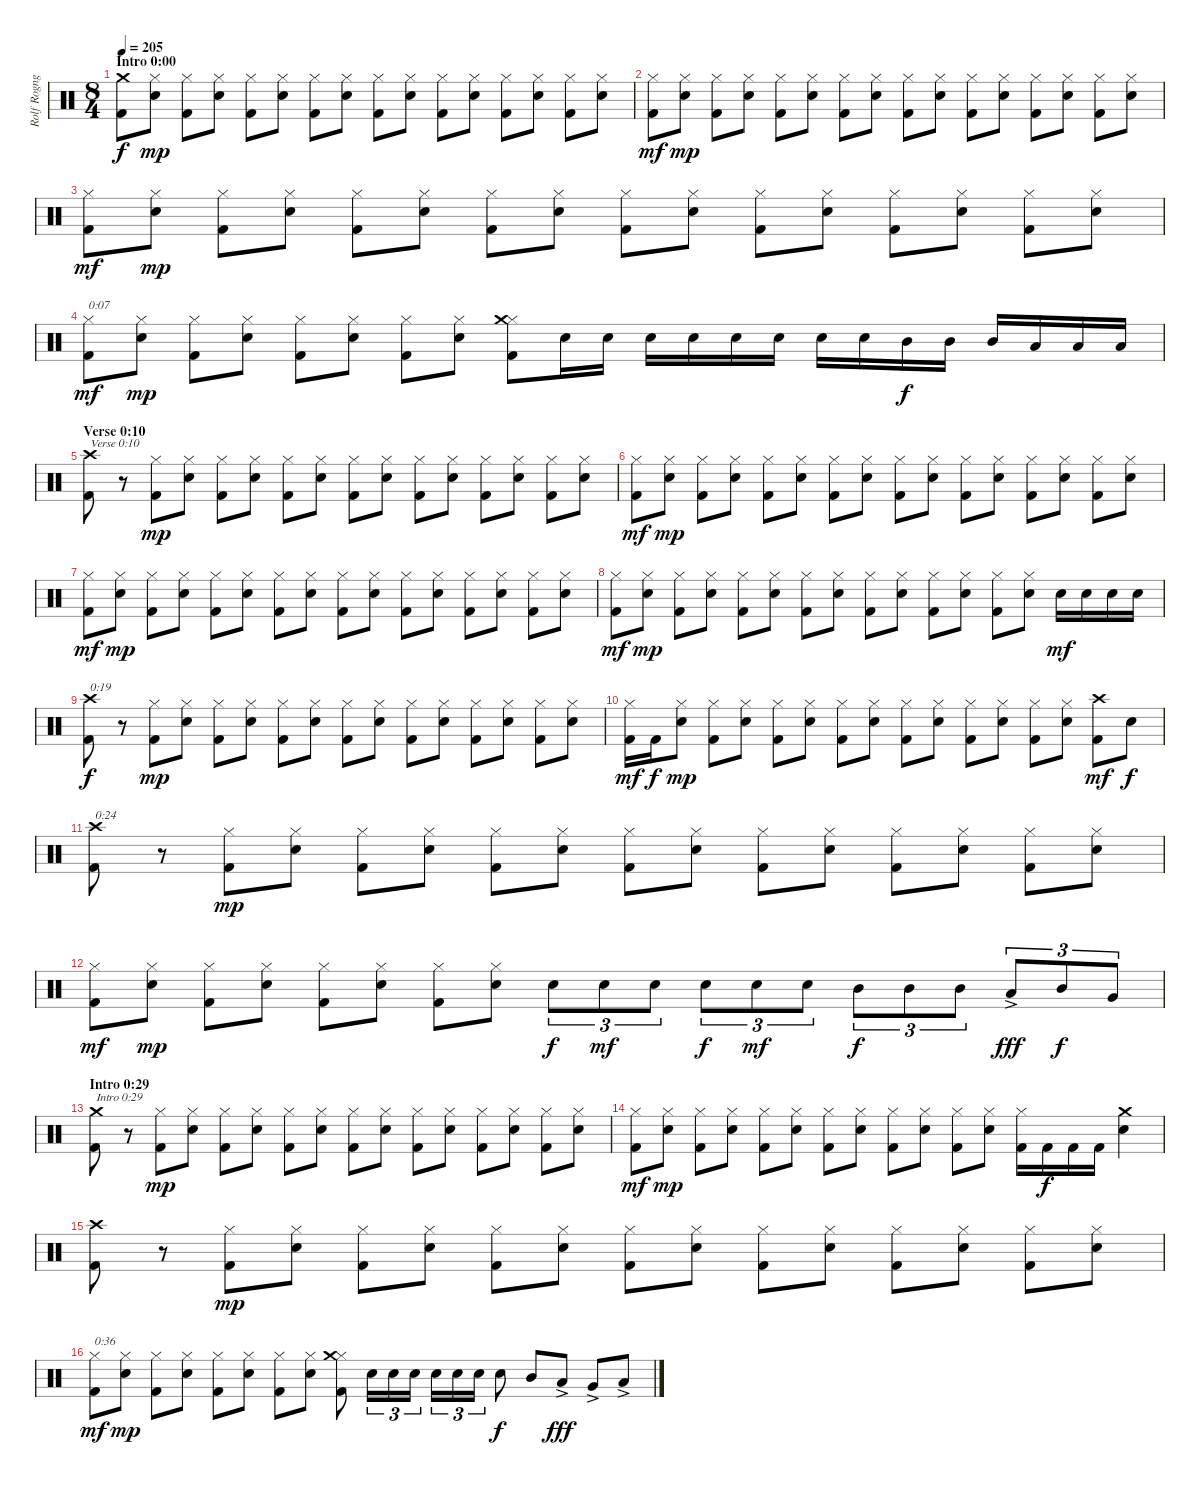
\track ("Rolf Rognguf Hansen" "Rolf Rogng") {instrument percussion}
\staff {score}
\articulation defaults
\ts (8 4)
\section ("" "Intro 0:00")
\tempo 205
\clef neutral
\ks c
("Kick (hit) 2" "Crash medium (hit)").8{dy f} ("Electric Snare (hit)" "Hi-Hat (closed)").8{dy mp} ("Kick (hit) 2" "Hi-Hat (closed)").8 ("Electric Snare (hit)" "Hi-Hat (closed)").8 ("Kick (hit) 2" "Hi-Hat (closed)").8 ("Electric Snare (hit)" "Hi-Hat (closed)").8 ("Kick (hit) 2" "Hi-Hat (closed)").8 ("Electric Snare (hit)" "Hi-Hat (closed)").8 ("Kick (hit) 2" "Hi-Hat (closed)").8 ("Electric Snare (hit)" "Hi-Hat (closed)").8 ("Kick (hit) 2" "Hi-Hat (closed)").8 ("Electric Snare (hit)" "Hi-Hat (closed)").8 ("Kick (hit) 2" "Hi-Hat (closed)").8 ("Electric Snare (hit)" "Hi-Hat (closed)").8 ("Kick (hit) 2" "Hi-Hat (closed)").8 ("Electric Snare (hit)" "Hi-Hat (closed)").8 |
("Kick (hit) 2" "Hi-Hat (closed)").8{dy mf} ("Electric Snare (hit)" "Hi-Hat (closed)").8{dy mp} ("Kick (hit) 2" "Hi-Hat (closed)").8 ("Electric Snare (hit)" "Hi-Hat (closed)").8 ("Kick (hit) 2" "Hi-Hat (closed)").8 ("Electric Snare (hit)" "Hi-Hat (closed)").8 ("Kick (hit) 2" "Hi-Hat (closed)").8 ("Electric Snare (hit)" "Hi-Hat (closed)").8 ("Kick (hit) 2" "Hi-Hat (closed)").8 ("Electric Snare (hit)" "Hi-Hat (closed)").8 ("Kick (hit) 2" "Hi-Hat (closed)").8 ("Electric Snare (hit)" "Hi-Hat (closed)").8 ("Kick (hit) 2" "Hi-Hat (closed)").8 ("Electric Snare (hit)" "Hi-Hat (closed)").8 ("Kick (hit) 2" "Hi-Hat (closed)").8 ("Electric Snare (hit)" "Hi-Hat (closed)").8 |
("Kick (hit) 2" "Hi-Hat (closed)").8{dy mf} ("Electric Snare (hit)" "Hi-Hat (closed)").8{dy mp} ("Kick (hit) 2" "Hi-Hat (closed)").8 ("Electric Snare (hit)" "Hi-Hat (closed)").8 ("Kick (hit) 2" "Hi-Hat (closed)").8 ("Electric Snare (hit)" "Hi-Hat (closed)").8 ("Kick (hit) 2" "Hi-Hat (closed)").8 ("Electric Snare (hit)" "Hi-Hat (closed)").8 ("Kick (hit) 2" "Hi-Hat (closed)").8 ("Electric Snare (hit)" "Hi-Hat (closed)").8 ("Kick (hit) 2" "Hi-Hat (closed)").8 ("Electric Snare (hit)" "Hi-Hat (closed)").8 ("Kick (hit) 2" "Hi-Hat (closed)").8 ("Electric Snare (hit)" "Hi-Hat (closed)").8 ("Kick (hit) 2" "Hi-Hat (closed)").8 ("Electric Snare (hit)" "Hi-Hat (closed)").8 |
("Kick (hit) 2" "Hi-Hat (closed)").8{txt "0:07" dy mf} ("Electric Snare (hit)" "Hi-Hat (closed)").8{dy mp} ("Kick (hit) 2" "Hi-Hat (closed)").8 ("Electric Snare (hit)" "Hi-Hat (closed)").8 ("Kick (hit) 2" "Hi-Hat (closed)").8 ("Electric Snare (hit)" "Hi-Hat (closed)").8 ("Kick (hit) 2" "Hi-Hat (closed)").8 ("Electric Snare (hit)" "Hi-Hat (closed)").8 ("Kick (hit) 2" "Hi-Hat (closed)" "Crash medium (hit)").8 "Electric Snare (hit)".16 "Electric Snare (hit)".16 "Electric Snare (hit)".16 "Electric Snare (hit)".16 "Electric Snare (hit)".16 "Electric Snare (hit)".16 "Electric Snare (hit)".16 "Electric Snare (hit)".16 "Mid Tom (hit)".16{dy f} "Mid Tom (hit)".16 "Mid Tom (hit)".16 "Low Tom (hit)".16 "Low Tom (hit)".16 "Low Tom (hit)".16 |
\section ("" "Verse 0:10")
("Kick (hit) 2" "Crash high (hit)").8{txt "Verse 0:10"} r.8 ("Kick (hit) 2" "Hi-Hat (closed)").8{dy mp} ("Electric Snare (hit)" "Hi-Hat (closed)").8 ("Kick (hit) 2" "Hi-Hat (closed)").8 ("Electric Snare (hit)" "Hi-Hat (closed)").8 ("Kick (hit) 2" "Hi-Hat (closed)").8 ("Electric Snare (hit)" "Hi-Hat (closed)").8 ("Kick (hit) 2" "Hi-Hat (closed)").8 ("Electric Snare (hit)" "Hi-Hat (closed)").8 ("Kick (hit) 2" "Hi-Hat (closed)").8 ("Electric Snare (hit)" "Hi-Hat (closed)").8 ("Kick (hit) 2" "Hi-Hat (closed)").8 ("Electric Snare (hit)" "Hi-Hat (closed)").8 ("Kick (hit) 2" "Hi-Hat (closed)").8 ("Electric Snare (hit)" "Hi-Hat (closed)").8 |
("Kick (hit) 2" "Hi-Hat (closed)").8{dy mf} ("Electric Snare (hit)" "Hi-Hat (closed)").8{dy mp} ("Kick (hit) 2" "Hi-Hat (closed)").8 ("Electric Snare (hit)" "Hi-Hat (closed)").8 ("Kick (hit) 2" "Hi-Hat (closed)").8 ("Electric Snare (hit)" "Hi-Hat (closed)").8 ("Kick (hit) 2" "Hi-Hat (closed)").8 ("Electric Snare (hit)" "Hi-Hat (closed)").8 ("Kick (hit) 2" "Hi-Hat (closed)").8 ("Electric Snare (hit)" "Hi-Hat (closed)").8 ("Kick (hit) 2" "Hi-Hat (closed)").8 ("Electric Snare (hit)" "Hi-Hat (closed)").8 ("Kick (hit) 2" "Hi-Hat (closed)").8 ("Electric Snare (hit)" "Hi-Hat (closed)").8 ("Kick (hit) 2" "Hi-Hat (closed)").8 ("Electric Snare (hit)" "Hi-Hat (closed)").8 |
("Kick (hit) 2" "Hi-Hat (closed)").8{dy mf} ("Electric Snare (hit)" "Hi-Hat (closed)").8{dy mp} ("Kick (hit) 2" "Hi-Hat (closed)").8 ("Electric Snare (hit)" "Hi-Hat (closed)").8 ("Kick (hit) 2" "Hi-Hat (closed)").8 ("Electric Snare (hit)" "Hi-Hat (closed)").8 ("Kick (hit) 2" "Hi-Hat (closed)").8 ("Electric Snare (hit)" "Hi-Hat (closed)").8 ("Kick (hit) 2" "Hi-Hat (closed)").8 ("Electric Snare (hit)" "Hi-Hat (closed)").8 ("Kick (hit) 2" "Hi-Hat (closed)").8 ("Electric Snare (hit)" "Hi-Hat (closed)").8 ("Kick (hit) 2" "Hi-Hat (closed)").8 ("Electric Snare (hit)" "Hi-Hat (closed)").8 ("Kick (hit) 2" "Hi-Hat (closed)").8 ("Electric Snare (hit)" "Hi-Hat (closed)").8 |
("Kick (hit) 2" "Hi-Hat (closed)").8{dy mf} ("Electric Snare (hit)" "Hi-Hat (closed)").8{dy mp} ("Kick (hit) 2" "Hi-Hat (closed)").8 ("Electric Snare (hit)" "Hi-Hat (closed)").8 ("Kick (hit) 2" "Hi-Hat (closed)").8 ("Electric Snare (hit)" "Hi-Hat (closed)").8 ("Kick (hit) 2" "Hi-Hat (closed)").8 ("Electric Snare (hit)" "Hi-Hat (closed)").8 ("Kick (hit) 2" "Hi-Hat (closed)").8 ("Electric Snare (hit)" "Hi-Hat (closed)").8 ("Kick (hit) 2" "Hi-Hat (closed)").8 ("Electric Snare (hit)" "Hi-Hat (closed)").8 ("Kick (hit) 2" "Hi-Hat (closed)").8 ("Electric Snare (hit)" "Hi-Hat (closed)").8 "Electric Snare (hit)".16{dy mf} "Electric Snare (hit)".16 "Electric Snare (hit)".16 "Electric Snare (hit)".16 |
("Kick (hit) 2" "Crash high (hit)").8{txt "0:19" dy f} r.8 ("Kick (hit) 2" "Hi-Hat (closed)").8{dy mp} ("Electric Snare (hit)" "Hi-Hat (closed)").8 ("Kick (hit) 2" "Hi-Hat (closed)").8 ("Electric Snare (hit)" "Hi-Hat (closed)").8 ("Kick (hit) 2" "Hi-Hat (closed)").8 ("Electric Snare (hit)" "Hi-Hat (closed)").8 ("Kick (hit) 2" "Hi-Hat (closed)").8 ("Electric Snare (hit)" "Hi-Hat (closed)").8 ("Kick (hit) 2" "Hi-Hat (closed)").8 ("Electric Snare (hit)" "Hi-Hat (closed)").8 ("Kick (hit) 2" "Hi-Hat (closed)").8 ("Electric Snare (hit)" "Hi-Hat (closed)").8 ("Kick (hit) 2" "Hi-Hat (closed)").8 ("Electric Snare (hit)" "Hi-Hat (closed)").8 |
("Kick (hit) 2" "Hi-Hat (closed)").16{dy mf} "Kick (hit) 2".16{dy f} ("Electric Snare (hit)" "Hi-Hat (closed)").8{dy mp} ("Kick (hit) 2" "Hi-Hat (closed)").8 ("Electric Snare (hit)" "Hi-Hat (closed)").8 ("Kick (hit) 2" "Hi-Hat (closed)").8 ("Electric Snare (hit)" "Hi-Hat (closed)").8 ("Kick (hit) 2" "Hi-Hat (closed)").8 ("Electric Snare (hit)" "Hi-Hat (closed)").8 ("Kick (hit) 2" "Hi-Hat (closed)").8 ("Electric Snare (hit)" "Hi-Hat (closed)").8 ("Kick (hit) 2" "Hi-Hat (closed)").8 ("Electric Snare (hit)" "Hi-Hat (closed)").8 ("Kick (hit) 2" "Hi-Hat (closed)").8 ("Electric Snare (hit)" "Hi-Hat (closed)").8 ("Kick (hit) 2" "Crash high (hit)").8{dy mf} "Electric Snare (hit)".8{dy f} |
("Kick (hit) 2" "Crash high (hit)").8{txt "0:24"} r.8 ("Kick (hit) 2" "Hi-Hat (closed)").8{dy mp} ("Electric Snare (hit)" "Hi-Hat (closed)").8 ("Kick (hit) 2" "Hi-Hat (closed)").8 ("Electric Snare (hit)" "Hi-Hat (closed)").8 ("Kick (hit) 2" "Hi-Hat (closed)").8 ("Electric Snare (hit)" "Hi-Hat (closed)").8 ("Kick (hit) 2" "Hi-Hat (closed)").8 ("Electric Snare (hit)" "Hi-Hat (closed)").8 ("Kick (hit) 2" "Hi-Hat (closed)").8 ("Electric Snare (hit)" "Hi-Hat (closed)").8 ("Kick (hit) 2" "Hi-Hat (closed)").8 ("Electric Snare (hit)" "Hi-Hat (closed)").8 ("Kick (hit) 2" "Hi-Hat (closed)").8 ("Electric Snare (hit)" "Hi-Hat (closed)").8 |
("Kick (hit) 2" "Hi-Hat (closed)").8{dy mf} ("Electric Snare (hit)" "Hi-Hat (closed)").8{dy mp} ("Kick (hit) 2" "Hi-Hat (closed)").8 ("Electric Snare (hit)" "Hi-Hat (closed)").8 ("Kick (hit) 2" "Hi-Hat (closed)").8 ("Electric Snare (hit)" "Hi-Hat (closed)").8 ("Kick (hit) 2" "Hi-Hat (closed)").8 ("Electric Snare (hit)" "Hi-Hat (closed)").8 "Electric Snare (hit)".8{tu (3 2) dy f} "Electric Snare (hit)".8{tu (3 2) dy mf} "Electric Snare (hit)".8{tu (3 2)} "Electric Snare (hit)".8{tu (3 2) dy f} "Electric Snare (hit)".8{tu (3 2) dy mf} "Electric Snare (hit)".8{tu (3 2)} "Mid Tom (hit)".8{tu (3 2) dy f} "Mid Tom (hit)".8{tu (3 2)} "Mid Tom (hit)".8{tu (3 2)} "Low Tom (hit)"{ac}.8{tu (3 2) dy fff} "Mid Tom (hit)".8{tu (3 2) dy f} "Very Low Tom (hit)".8{tu (3 2)} |
\section ("" "Intro 0:29")
("Kick (hit) 2" "Crash medium (hit)").8{txt "Intro 0:29"} r.8 ("Kick (hit) 2" "Hi-Hat (closed)").8{dy mp} ("Electric Snare (hit)" "Hi-Hat (closed)").8 ("Kick (hit) 2" "Hi-Hat (closed)").8 ("Electric Snare (hit)" "Hi-Hat (closed)").8 ("Kick (hit) 2" "Hi-Hat (closed)").8 ("Electric Snare (hit)" "Hi-Hat (closed)").8 ("Kick (hit) 2" "Hi-Hat (closed)").8 ("Electric Snare (hit)" "Hi-Hat (closed)").8 ("Kick (hit) 2" "Hi-Hat (closed)").8 ("Electric Snare (hit)" "Hi-Hat (closed)").8 ("Kick (hit) 2" "Hi-Hat (closed)").8 ("Electric Snare (hit)" "Hi-Hat (closed)").8 ("Kick (hit) 2" "Hi-Hat (closed)").8 ("Electric Snare (hit)" "Hi-Hat (closed)").8 |
("Kick (hit) 2" "Hi-Hat (closed)").8{dy mf} ("Electric Snare (hit)" "Hi-Hat (closed)").8{dy mp} ("Kick (hit) 2" "Hi-Hat (closed)").8 ("Electric Snare (hit)" "Hi-Hat (closed)").8 ("Kick (hit) 2" "Hi-Hat (closed)").8 ("Electric Snare (hit)" "Hi-Hat (closed)").8 ("Kick (hit) 2" "Hi-Hat (closed)").8 ("Electric Snare (hit)" "Hi-Hat (closed)").8 ("Kick (hit) 2" "Hi-Hat (closed)").8 ("Electric Snare (hit)" "Hi-Hat (closed)").8 ("Kick (hit) 2" "Hi-Hat (closed)").8 ("Electric Snare (hit)" "Hi-Hat (closed)").8 ("Kick (hit) 2" "Hi-Hat (closed)").16 "Kick (hit) 2".16{dy f} "Kick (hit) 2".16 "Kick (hit) 2".16 ("Electric Snare (hit)" "Crash medium (hit)").4 |
("Kick (hit) 2" "Crash high (hit)").8 r.8 ("Kick (hit) 2" "Hi-Hat (closed)").8{dy mp} ("Electric Snare (hit)" "Hi-Hat (closed)").8 ("Kick (hit) 2" "Hi-Hat (closed)").8 ("Electric Snare (hit)" "Hi-Hat (closed)").8 ("Kick (hit) 2" "Hi-Hat (closed)").8 ("Electric Snare (hit)" "Hi-Hat (closed)").8 ("Kick (hit) 2" "Hi-Hat (closed)").8 ("Electric Snare (hit)" "Hi-Hat (closed)").8 ("Kick (hit) 2" "Hi-Hat (closed)").8 ("Electric Snare (hit)" "Hi-Hat (closed)").8 ("Kick (hit) 2" "Hi-Hat (closed)").8 ("Electric Snare (hit)" "Hi-Hat (closed)").8 ("Kick (hit) 2" "Hi-Hat (closed)").8 ("Electric Snare (hit)" "Hi-Hat (closed)").8 |
("Kick (hit) 2" "Hi-Hat (closed)").8{txt "0:36" dy mf} ("Electric Snare (hit)" "Hi-Hat (closed)").8{dy mp} ("Kick (hit) 2" "Hi-Hat (closed)").8 ("Electric Snare (hit)" "Hi-Hat (closed)").8 ("Kick (hit) 2" "Hi-Hat (closed)").8 ("Electric Snare (hit)" "Hi-Hat (closed)").8 ("Kick (hit) 2" "Hi-Hat (closed)").8 ("Electric Snare (hit)" "Hi-Hat (closed)").8 ("Kick (hit) 2" "Hi-Hat (closed)" "Crash medium (hit)").8 "Electric Snare (hit)".16{tu (3 2)} "Electric Snare (hit)".16{tu (3 2)} "Electric Snare (hit)".16{tu (3 2)} "Electric Snare (hit)".16{tu (3 2)} "Electric Snare (hit)".16{tu (3 2)} "Electric Snare (hit)".16{tu (3 2)} "Electric Snare (hit)".8{dy f} "Mid Tom (hit)".8 "Low Tom (hit)"{ac}.8{dy fff} "Very Low Tom (hit)"{ac}.8 "Low Tom (hit)"{ac}.8
